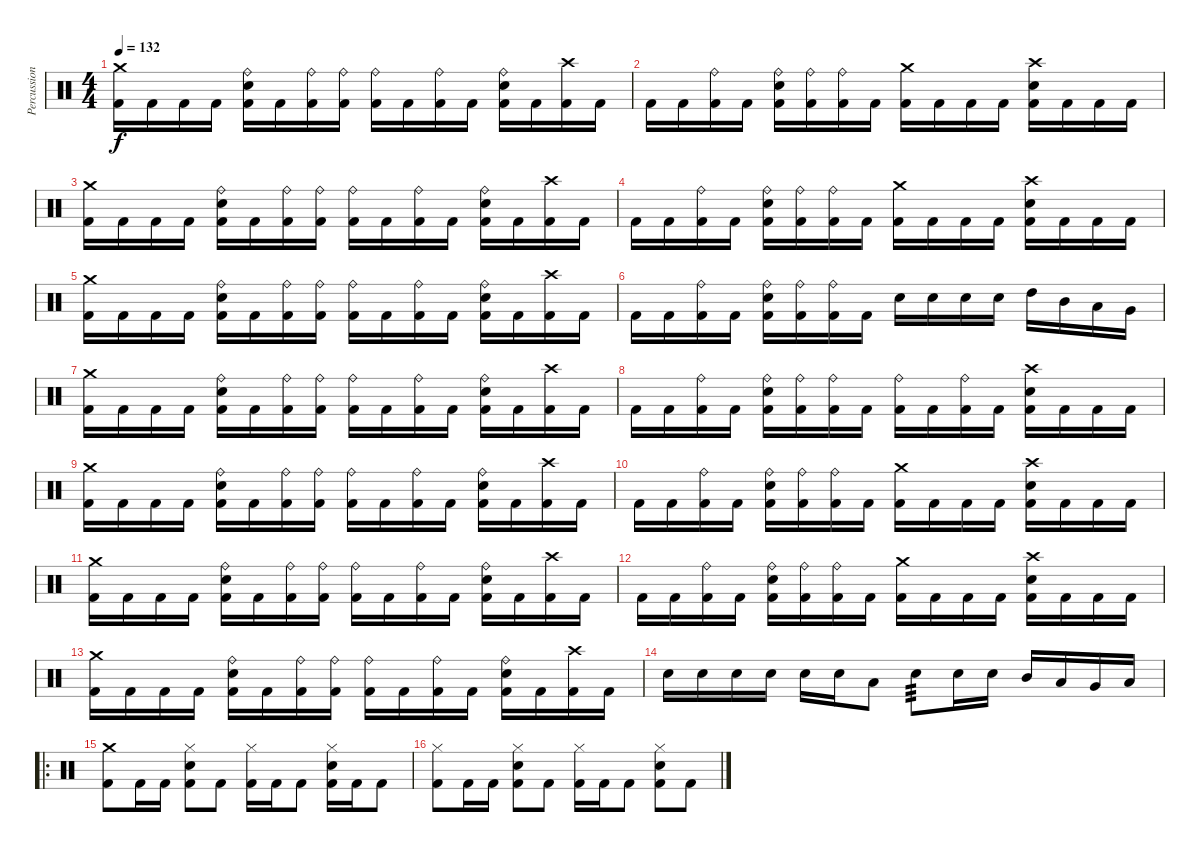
\track ("Percussion" "Percussion") {instrument percussion}
\staff {score}
\articulation defaults
\ts (4 4)
\tempo 132
\clef neutral
\ks c
("Kick (hit) 2" "Crash medium (hit)").16{dy f} "Kick (hit) 2".16 "Kick (hit) 2".16 "Kick (hit) 2".16 ("Snare (hit) 2" "Kick (hit) 2" "Ride (bell)").16 "Kick (hit) 2".16 ("Kick (hit) 2" "Ride (bell)").16 ("Kick (hit) 2" "Ride (bell)").16 ("Kick (hit) 2" "Ride (bell)").16 "Kick (hit) 2".16 ("Kick (hit) 2" "Ride (bell)").16 "Kick (hit) 2".16 ("Snare (hit) 2" "Kick (hit) 2" "Ride (bell)").16 "Kick (hit) 2".16 ("Kick (hit) 2" "Crash high (hit)").16 "Kick (hit) 2".16 |
"Kick (hit) 2".16 "Kick (hit) 2".16 ("Kick (hit) 2" "Ride (bell)").16 "Kick (hit) 2".16 ("Snare (hit) 2" "Kick (hit) 2" "Ride (bell)").16 ("Kick (hit) 2" "Ride (bell)").16 ("Kick (hit) 2" "Ride (bell)").16 "Kick (hit) 2".16 ("Kick (hit) 2" "Crash medium (hit)").16 "Kick (hit) 2".16 "Kick (hit) 2".16 "Kick (hit) 2".16 ("Snare (hit) 2" "Kick (hit) 2" "Crash high (hit)").16 "Kick (hit) 2".16 "Kick (hit) 2".16 "Kick (hit) 2".16 |
("Kick (hit) 2" "Crash medium (hit)").16 "Kick (hit) 2".16 "Kick (hit) 2".16 "Kick (hit) 2".16 ("Snare (hit) 2" "Kick (hit) 2" "Ride (bell)").16 "Kick (hit) 2".16 ("Kick (hit) 2" "Ride (bell)").16 ("Kick (hit) 2" "Ride (bell)").16 ("Kick (hit) 2" "Ride (bell)").16 "Kick (hit) 2".16 ("Kick (hit) 2" "Ride (bell)").16 "Kick (hit) 2".16 ("Snare (hit) 2" "Kick (hit) 2" "Ride (bell)").16 "Kick (hit) 2".16 ("Kick (hit) 2" "Crash high (hit)").16 "Kick (hit) 2".16 |
"Kick (hit) 2".16 "Kick (hit) 2".16 ("Kick (hit) 2" "Ride (bell)").16 "Kick (hit) 2".16 ("Snare (hit) 2" "Kick (hit) 2" "Ride (bell)").16 ("Kick (hit) 2" "Ride (bell)").16 ("Kick (hit) 2" "Ride (bell)").16 "Kick (hit) 2".16 ("Kick (hit) 2" "Crash medium (hit)").16 "Kick (hit) 2".16 "Kick (hit) 2".16 "Kick (hit) 2".16 ("Snare (hit) 2" "Kick (hit) 2" "Crash high (hit)").16 "Kick (hit) 2".16 "Kick (hit) 2".16 "Kick (hit) 2".16 |
("Kick (hit) 2" "Crash medium (hit)").16 "Kick (hit) 2".16 "Kick (hit) 2".16 "Kick (hit) 2".16 ("Snare (hit) 2" "Kick (hit) 2" "Ride (bell)").16 "Kick (hit) 2".16 ("Kick (hit) 2" "Ride (bell)").16 ("Kick (hit) 2" "Ride (bell)").16 ("Kick (hit) 2" "Ride (bell)").16 "Kick (hit) 2".16 ("Kick (hit) 2" "Ride (bell)").16 "Kick (hit) 2".16 ("Snare (hit) 2" "Kick (hit) 2" "Ride (bell)").16 "Kick (hit) 2".16 ("Kick (hit) 2" "Crash high (hit)").16 "Kick (hit) 2".16 |
"Kick (hit) 2".16 "Kick (hit) 2".16 ("Kick (hit) 2" "Ride (bell)").16 "Kick (hit) 2".16 ("Snare (hit) 2" "Kick (hit) 2" "Ride (bell)").16 ("Kick (hit) 2" "Ride (bell)").16 ("Kick (hit) 2" "Ride (bell)").16 "Kick (hit) 2".16 "Snare (hit) 2".16 "Snare (hit) 2".16 "Snare (hit) 2".16 "Snare (hit) 2".16 "High Tom (hit)".16 "Mid Tom (hit)".16 "Low Tom (hit)".16 "Very Low Tom (hit)".16 |
("Kick (hit) 2" "Crash medium (hit)").16 "Kick (hit) 2".16 "Kick (hit) 2".16 "Kick (hit) 2".16 ("Snare (hit) 2" "Kick (hit) 2" "Ride (bell)").16 "Kick (hit) 2".16 ("Kick (hit) 2" "Ride (bell)").16 ("Kick (hit) 2" "Ride (bell)").16 ("Kick (hit) 2" "Ride (bell)").16 "Kick (hit) 2".16 ("Kick (hit) 2" "Ride (bell)").16 "Kick (hit) 2".16 ("Snare (hit) 2" "Kick (hit) 2" "Ride (bell)").16 "Kick (hit) 2".16 ("Kick (hit) 2" "Crash high (hit)").16 "Kick (hit) 2".16 |
"Kick (hit) 2".16 "Kick (hit) 2".16 ("Kick (hit) 2" "Ride (bell)").16 "Kick (hit) 2".16 ("Snare (hit) 2" "Kick (hit) 2" "Ride (bell)").16 ("Kick (hit) 2" "Ride (bell)").16 ("Kick (hit) 2" "Ride (bell)").16 "Kick (hit) 2".16 ("Kick (hit) 2" "Ride (bell)").16 "Kick (hit) 2".16 ("Kick (hit) 2" "Ride (bell)").16 "Kick (hit) 2".16 ("Snare (hit) 2" "Kick (hit) 2" "Crash high (hit)").16 "Kick (hit) 2".16 "Kick (hit) 2".16 "Kick (hit) 2".16 |
("Kick (hit) 2" "Crash medium (hit)").16 "Kick (hit) 2".16 "Kick (hit) 2".16 "Kick (hit) 2".16 ("Snare (hit) 2" "Kick (hit) 2" "Ride (bell)").16 "Kick (hit) 2".16 ("Kick (hit) 2" "Ride (bell)").16 ("Kick (hit) 2" "Ride (bell)").16 ("Kick (hit) 2" "Ride (bell)").16 "Kick (hit) 2".16 ("Kick (hit) 2" "Ride (bell)").16 "Kick (hit) 2".16 ("Snare (hit) 2" "Kick (hit) 2" "Ride (bell)").16 "Kick (hit) 2".16 ("Kick (hit) 2" "Crash high (hit)").16 "Kick (hit) 2".16 |
"Kick (hit) 2".16 "Kick (hit) 2".16 ("Kick (hit) 2" "Ride (bell)").16 "Kick (hit) 2".16 ("Snare (hit) 2" "Kick (hit) 2" "Ride (bell)").16 ("Kick (hit) 2" "Ride (bell)").16 ("Kick (hit) 2" "Ride (bell)").16 "Kick (hit) 2".16 ("Kick (hit) 2" "Crash medium (hit)").16 "Kick (hit) 2".16 "Kick (hit) 2".16 "Kick (hit) 2".16 ("Snare (hit) 2" "Kick (hit) 2" "Crash high (hit)").16 "Kick (hit) 2".16 "Kick (hit) 2".16 "Kick (hit) 2".16 |
("Kick (hit) 2" "Crash medium (hit)").16 "Kick (hit) 2".16 "Kick (hit) 2".16 "Kick (hit) 2".16 ("Snare (hit) 2" "Kick (hit) 2" "Ride (bell)").16 "Kick (hit) 2".16 ("Kick (hit) 2" "Ride (bell)").16 ("Kick (hit) 2" "Ride (bell)").16 ("Kick (hit) 2" "Ride (bell)").16 "Kick (hit) 2".16 ("Kick (hit) 2" "Ride (bell)").16 "Kick (hit) 2".16 ("Snare (hit) 2" "Kick (hit) 2" "Ride (bell)").16 "Kick (hit) 2".16 ("Kick (hit) 2" "Crash high (hit)").16 "Kick (hit) 2".16 |
"Kick (hit) 2".16 "Kick (hit) 2".16 ("Kick (hit) 2" "Ride (bell)").16 "Kick (hit) 2".16 ("Snare (hit) 2" "Kick (hit) 2" "Ride (bell)").16 ("Kick (hit) 2" "Ride (bell)").16 ("Kick (hit) 2" "Ride (bell)").16 "Kick (hit) 2".16 ("Kick (hit) 2" "Crash medium (hit)").16 "Kick (hit) 2".16 "Kick (hit) 2".16 "Kick (hit) 2".16 ("Snare (hit) 2" "Kick (hit) 2" "Crash high (hit)").16 "Kick (hit) 2".16 "Kick (hit) 2".16 "Kick (hit) 2".16 |
("Kick (hit) 2" "Crash medium (hit)").16 "Kick (hit) 2".16 "Kick (hit) 2".16 "Kick (hit) 2".16 ("Snare (hit) 2" "Kick (hit) 2" "Ride (bell)").16 "Kick (hit) 2".16 ("Kick (hit) 2" "Ride (bell)").16 ("Kick (hit) 2" "Ride (bell)").16 ("Kick (hit) 2" "Ride (bell)").16 "Kick (hit) 2".16 ("Kick (hit) 2" "Ride (bell)").16 "Kick (hit) 2".16 ("Snare (hit) 2" "Kick (hit) 2" "Ride (bell)").16 "Kick (hit) 2".16 ("Kick (hit) 2" "Crash high (hit)").16 "Kick (hit) 2".16 |
"Snare (hit) 2".16 "Snare (hit) 2".16 "Snare (hit) 2".16 "Snare (hit) 2".16 "Snare (hit) 2".16 "Snare (hit) 2".16 "Low Tom (hit)".8 "Snare (hit) 2".8{tp 3} "Snare (hit) 2".16 "Snare (hit) 2".16 "Mid Tom (hit)".16 "Low Tom (hit)".16 "Very Low Tom (hit)".16 "Low Floor Tom (hit)".16 |
\ro
("Kick (hit) 2" "Crash medium (hit)").8 "Kick (hit) 2".16 "Kick (hit) 2".16 ("Hi-Hat (closed)" "Kick (hit) 2" "Snare (hit) 2").8 "Kick (hit) 2".8 ("Kick (hit) 2" "Hi-Hat (closed)").16 "Kick (hit) 2".16 "Kick (hit) 2".8 ("Kick (hit) 2" "Hi-Hat (closed)" "Snare (hit) 2").16 "Kick (hit) 2".16 "Kick (hit) 2".8 |
("Kick (hit) 2" "Hi-Hat (closed)").8 "Kick (hit) 2".16 "Kick (hit) 2".16 ("Hi-Hat (closed)" "Kick (hit) 2" "Snare (hit) 2").8 "Kick (hit) 2".8 ("Kick (hit) 2" "Hi-Hat (closed)").16 "Kick (hit) 2".16 "Kick (hit) 2".8 ("Kick (hit) 2" "Hi-Hat (closed)" "Snare (hit) 2").8 "Kick (hit) 2".8
